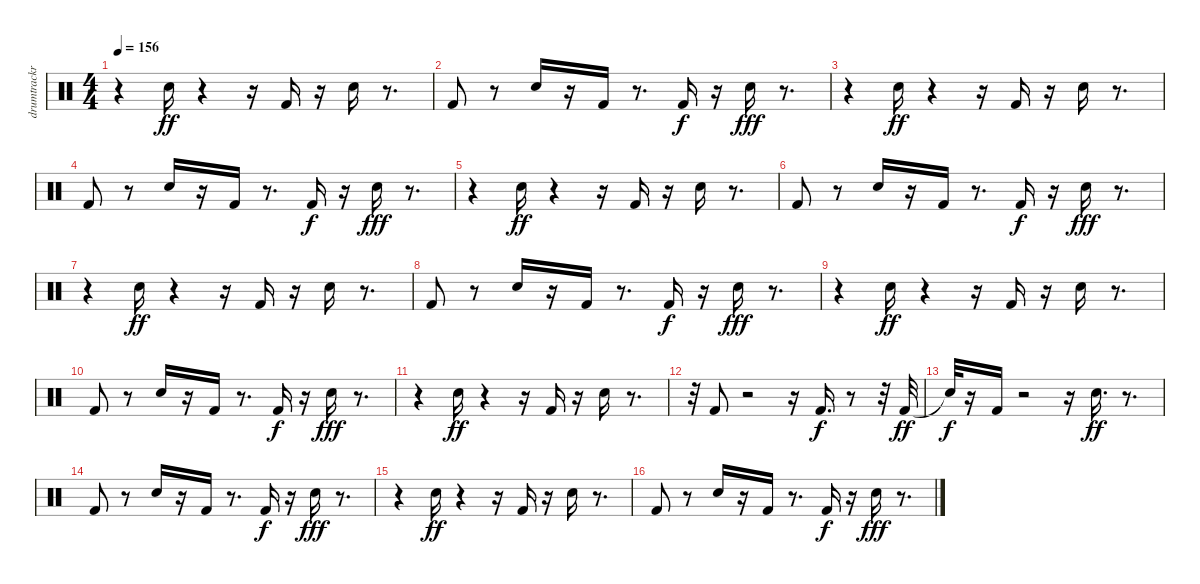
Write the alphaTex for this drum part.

\track ("drumtrackr " "drumtrackr") {instrument percussion}
\staff {score}
\articulation defaults
\ts (4 4)
\tempo 156
\clef neutral
\ks c
r.4{dy fff} "Snare (hit) 2".16{dy ff} r.4 r.16 "Kick (hit) 2".16 r.16 "Snare (hit) 2".16 r.8{d} |
"Kick (hit) 2".8 r.8 "Snare (hit) 2".16 r.16 "Kick (hit) 2".16 r.8{d} "Kick (hit) 2".16{dy f} r.16 "Snare (hit) 2".16{dy fff} r.8{d} |
r.4 "Snare (hit) 2".16{dy ff} r.4 r.16 "Kick (hit) 2".16 r.16 "Snare (hit) 2".16 r.8{d} |
"Kick (hit) 2".8 r.8 "Snare (hit) 2".16 r.16 "Kick (hit) 2".16 r.8{d} "Kick (hit) 2".16{dy f} r.16 "Snare (hit) 2".16{dy fff} r.8{d} |
r.4 "Snare (hit) 2".16{dy ff} r.4 r.16 "Kick (hit) 2".16 r.16 "Snare (hit) 2".16 r.8{d} |
"Kick (hit) 2".8 r.8 "Snare (hit) 2".16 r.16 "Kick (hit) 2".16 r.8{d} "Kick (hit) 2".16{dy f} r.16 "Snare (hit) 2".16{dy fff} r.8{d} |
r.4 "Snare (hit) 2".16{dy ff} r.4 r.16 "Kick (hit) 2".16 r.16 "Snare (hit) 2".16 r.8{d} |
"Kick (hit) 2".8 r.8 "Snare (hit) 2".16 r.16 "Kick (hit) 2".16 r.8{d} "Kick (hit) 2".16{dy f} r.16 "Snare (hit) 2".16{dy fff} r.8{d} |
r.4 "Snare (hit) 2".16{dy ff} r.4 r.16 "Kick (hit) 2".16 r.16 "Snare (hit) 2".16 r.8{d} |
"Kick (hit) 2".8 r.8 "Snare (hit) 2".16 r.16 "Kick (hit) 2".16 r.8{d} "Kick (hit) 2".16{dy f} r.16 "Snare (hit) 2".16{dy fff} r.8{d} |
r.4 "Snare (hit) 2".16{dy ff} r.4 r.16 "Kick (hit) 2".16 r.16 "Snare (hit) 2".16 r.8{d} |
r.32 "Kick (hit) 2".8 r.2 r.16 "Kick (hit) 2".16{d dy f} r.8 r.32 "Kick (hit) 2".32{dy ff} |
"Snare (hit)"{t}.32{dy f} r.16 "Kick (hit) 2".16 r.2 r.16 "Snare (hit) 2".16{d dy ff} r.8{d} |
"Kick (hit) 2".8 r.8 "Snare (hit) 2".16 r.16 "Kick (hit) 2".16 r.8{d} "Kick (hit) 2".16{dy f} r.16 "Snare (hit) 2".16{dy fff} r.8{d} |
r.4 "Snare (hit) 2".16{dy ff} r.4 r.16 "Kick (hit) 2".16 r.16 "Snare (hit) 2".16 r.8{d} |
"Kick (hit) 2".8 r.8 "Snare (hit) 2".16 r.16 "Kick (hit) 2".16 r.8{d} "Kick (hit) 2".16{dy f} r.16 "Snare (hit) 2".16{dy fff} r.8{d}
